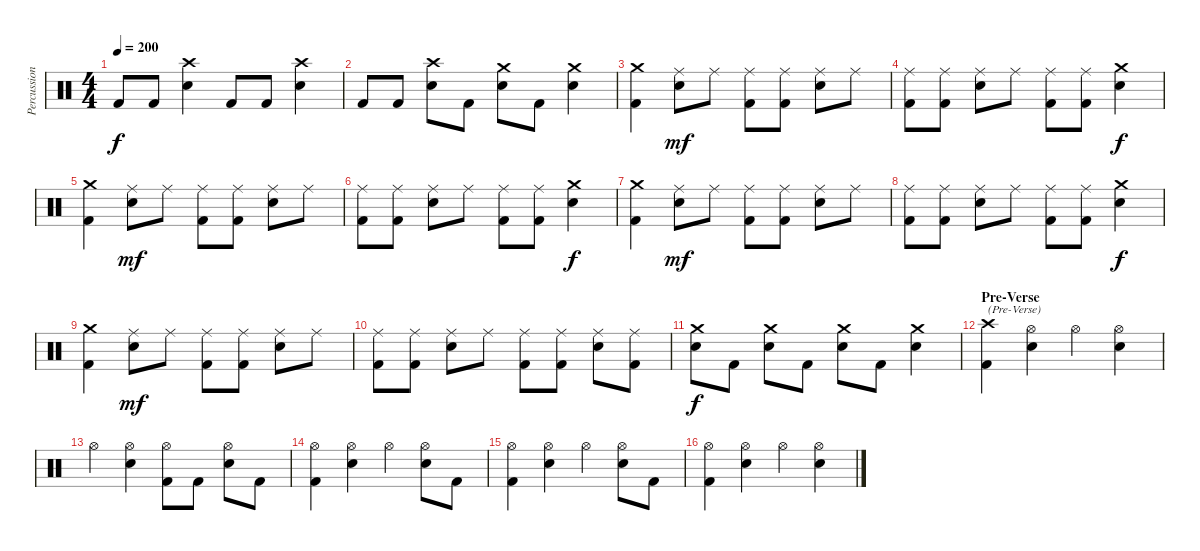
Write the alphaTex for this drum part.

\track ("Percussion" "Percussion") {instrument percussion}
\staff {score}
\articulation defaults
\ts (4 4)
\tempo 200
\clef neutral
\ks c "Kick (hit) 2".8{dy f} "Kick (hit) 2".8
("Crash high (hit)" "Electric Snare (hit)").4 "Kick (hit) 2".8 "Kick (hit) 2".8 ("Crash high (hit)" "Electric Snare (hit)").4 |
"Kick (hit) 2".8 "Kick (hit) 2".8 ("Crash high (hit)" "Electric Snare (hit)").8 "Kick (hit) 2".8 ("Crash medium (hit)" "Electric Snare (hit)").8 "Kick (hit) 2".8 ("Crash medium (hit)" "Electric Snare (hit)").4 |
("Crash medium (hit)" "Kick (hit) 2").4 ("Ride (middle)" "Electric Snare (hit)").8{dy mf} "Ride (middle)".8 ("Ride (middle)" "Kick (hit) 2").8 ("Ride (middle)" "Kick (hit) 2").8 ("Ride (middle)" "Electric Snare (hit)").8 "Ride (middle)".8 |
("Ride (middle)" "Kick (hit) 2").8 ("Ride (middle)" "Kick (hit) 2").8 ("Ride (middle)" "Electric Snare (hit)").8 "Ride (middle)".8 ("Ride (middle)" "Kick (hit) 2").8 ("Ride (middle)" "Kick (hit) 2").8 ("Crash medium (hit)" "Electric Snare (hit)").4{dy f} |
("Crash medium (hit)" "Kick (hit) 2").4 ("Ride (middle)" "Electric Snare (hit)").8{dy mf} "Ride (middle)".8 ("Ride (middle)" "Kick (hit) 2").8 ("Ride (middle)" "Kick (hit) 2").8 ("Ride (middle)" "Electric Snare (hit)").8 "Ride (middle)".8 |
("Ride (middle)" "Kick (hit) 2").8 ("Ride (middle)" "Kick (hit) 2").8 ("Ride (middle)" "Electric Snare (hit)").8 "Ride (middle)".8 ("Ride (middle)" "Kick (hit) 2").8 ("Ride (middle)" "Kick (hit) 2").8 ("Crash medium (hit)" "Electric Snare (hit)").4{dy f} |
("Crash medium (hit)" "Kick (hit) 2").4 ("Ride (middle)" "Electric Snare (hit)").8{dy mf} "Ride (middle)".8 ("Ride (middle)" "Kick (hit) 2").8 ("Ride (middle)" "Kick (hit) 2").8 ("Ride (middle)" "Electric Snare (hit)").8 "Ride (middle)".8 |
("Ride (middle)" "Kick (hit) 2").8 ("Ride (middle)" "Kick (hit) 2").8 ("Ride (middle)" "Electric Snare (hit)").8 "Ride (middle)".8 ("Ride (middle)" "Kick (hit) 2").8 ("Ride (middle)" "Kick (hit) 2").8 ("Crash medium (hit)" "Electric Snare (hit)").4{dy f} |
("Crash medium (hit)" "Kick (hit) 2").4 ("Ride (middle)" "Electric Snare (hit)").8{dy mf} "Ride (middle)".8 ("Ride (middle)" "Kick (hit) 2").8 ("Ride (middle)" "Kick (hit) 2").8 ("Ride (middle)" "Electric Snare (hit)").8 "Ride (middle)".8 |
("Ride (middle)" "Kick (hit) 2").8 ("Ride (middle)" "Kick (hit) 2").8 ("Ride (middle)" "Electric Snare (hit)").8 "Ride (middle)".8 ("Ride (middle)" "Kick (hit) 2").8 ("Ride (middle)" "Kick (hit) 2").8 ("Ride (middle)" "Electric Snare (hit)").8 ("Ride (middle)" "Kick (hit) 2").8 |
("Crash medium (hit)" "Electric Snare (hit)").8{dy f} "Kick (hit) 2".8 ("Crash medium (hit)" "Electric Snare (hit)").8 "Kick (hit) 2".8 ("Crash medium (hit)" "Electric Snare (hit)").8 "Kick (hit) 2".8 ("Crash medium (hit)" "Electric Snare (hit)").4 |
\section ("" "Pre-Verse")
("Crash high (hit)" "Kick (hit) 2").4{txt "(Pre-Verse)"} ("Hi-Hat (open)" "Electric Snare (hit)").4 "Hi-Hat (open)".4 ("Hi-Hat (open)" "Electric Snare (hit)").4 |
"Hi-Hat (open)".4 ("Hi-Hat (open)" "Electric Snare (hit)").4 ("Hi-Hat (open)" "Kick (hit) 2").8 "Kick (hit) 2".8 ("Hi-Hat (open)" "Electric Snare (hit)").8 "Kick (hit) 2".8 |
("Hi-Hat (open)" "Kick (hit) 2").4 ("Hi-Hat (open)" "Electric Snare (hit)").4 "Hi-Hat (open)".4 ("Hi-Hat (open)" "Electric Snare (hit)").8 "Kick (hit) 2".8 |
("Hi-Hat (open)" "Kick (hit) 2").4 ("Hi-Hat (open)" "Electric Snare (hit)").4 "Hi-Hat (open)".4 ("Hi-Hat (open)" "Electric Snare (hit)").8 "Kick (hit) 2".8 |
("Hi-Hat (open)" "Kick (hit) 2").4 ("Hi-Hat (open)" "Electric Snare (hit)").4 "Hi-Hat (open)".4 ("Hi-Hat (open)" "Electric Snare (hit)").4
